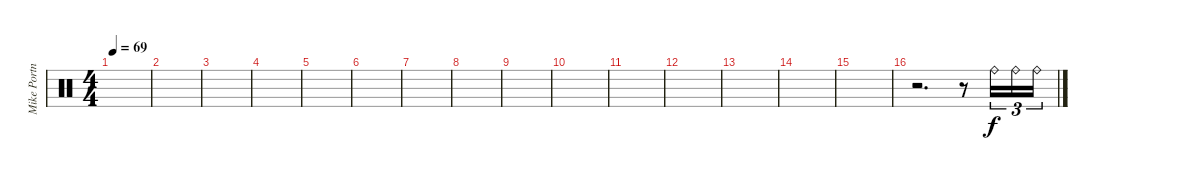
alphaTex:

\track ("Mike Portnoy" "Mike Portn") {instrument percussion}
\staff {score}
\articulation defaults
\ts (4 4)
\tempo 69
\clef neutral
\ks c
|
|
|
|
|
|
|
|
|
|
|
|
|
|
|
r.2{d} r.8 "Ride (bell)".16{tu (3 2)} "Ride (bell)".16{tu (3 2)} "Ride (bell)".16{tu (3 2)}
